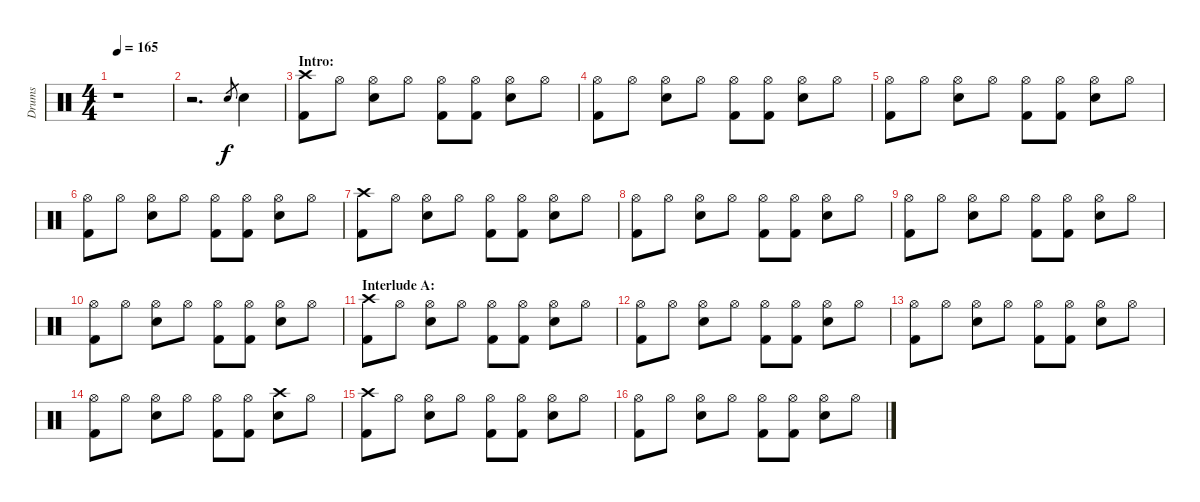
\track ("Drums" "Drums") {instrument percussion}
\staff {score}
\articulation defaults
\ts (4 4)
\tempo 165
\clef neutral
\ks c
r.1{dy f} |
r.2{d} "Electric Snare (hit)".8{gr} "Electric Snare (hit)".4 |
\section ("" "Intro:")
("Crash high (hit)" "Kick (hit) 2").8 "Hi-Hat (open)".8 ("Hi-Hat (open)" "Electric Snare (hit)").8 "Hi-Hat (open)".8 ("Hi-Hat (open)" "Kick (hit) 2").8 ("Hi-Hat (open)" "Kick (hit) 2").8 ("Hi-Hat (open)" "Electric Snare (hit)").8 "Hi-Hat (open)".8 |
("Hi-Hat (open)" "Kick (hit) 2").8 "Hi-Hat (open)".8 ("Hi-Hat (open)" "Electric Snare (hit)").8 "Hi-Hat (open)".8 ("Hi-Hat (open)" "Kick (hit) 2").8 ("Hi-Hat (open)" "Kick (hit) 2").8 ("Hi-Hat (open)" "Electric Snare (hit)").8 "Hi-Hat (open)".8 |
("Hi-Hat (open)" "Kick (hit) 2").8 "Hi-Hat (open)".8 ("Hi-Hat (open)" "Electric Snare (hit)").8 "Hi-Hat (open)".8 ("Hi-Hat (open)" "Kick (hit) 2").8 ("Hi-Hat (open)" "Kick (hit) 2").8 ("Hi-Hat (open)" "Electric Snare (hit)").8 "Hi-Hat (open)".8 |
("Hi-Hat (open)" "Kick (hit) 2").8 "Hi-Hat (open)".8 ("Hi-Hat (open)" "Electric Snare (hit)").8 "Hi-Hat (open)".8 ("Hi-Hat (open)" "Kick (hit) 2").8 ("Hi-Hat (open)" "Kick (hit) 2").8 ("Hi-Hat (open)" "Electric Snare (hit)").8 "Hi-Hat (open)".8 |
("Crash high (hit)" "Kick (hit) 2").8 "Hi-Hat (open)".8 ("Hi-Hat (open)" "Electric Snare (hit)").8 "Hi-Hat (open)".8 ("Hi-Hat (open)" "Kick (hit) 2").8 ("Hi-Hat (open)" "Kick (hit) 2").8 ("Hi-Hat (open)" "Electric Snare (hit)").8 "Hi-Hat (open)".8 |
("Hi-Hat (open)" "Kick (hit) 2").8 "Hi-Hat (open)".8 ("Hi-Hat (open)" "Electric Snare (hit)").8 "Hi-Hat (open)".8 ("Hi-Hat (open)" "Kick (hit) 2").8 ("Hi-Hat (open)" "Kick (hit) 2").8 ("Hi-Hat (open)" "Electric Snare (hit)").8 "Hi-Hat (open)".8 |
("Hi-Hat (open)" "Kick (hit) 2").8 "Hi-Hat (open)".8 ("Hi-Hat (open)" "Electric Snare (hit)").8 "Hi-Hat (open)".8 ("Hi-Hat (open)" "Kick (hit) 2").8 ("Hi-Hat (open)" "Kick (hit) 2").8 ("Hi-Hat (open)" "Electric Snare (hit)").8 "Hi-Hat (open)".8 |
("Hi-Hat (open)" "Kick (hit) 2").8 "Hi-Hat (open)".8 ("Hi-Hat (open)" "Electric Snare (hit)").8 "Hi-Hat (open)".8 ("Hi-Hat (open)" "Kick (hit) 2").8 ("Hi-Hat (open)" "Kick (hit) 2").8 ("Hi-Hat (open)" "Electric Snare (hit)").8 "Hi-Hat (open)".8 |
\section ("" "Interlude A:")
("Crash high (hit)" "Kick (hit) 2").8 "Hi-Hat (open)".8 ("Hi-Hat (open)" "Electric Snare (hit)").8 "Hi-Hat (open)".8 ("Hi-Hat (open)" "Kick (hit) 2").8 ("Hi-Hat (open)" "Kick (hit) 2").8 ("Hi-Hat (open)" "Electric Snare (hit)").8 "Hi-Hat (open)".8 |
("Hi-Hat (open)" "Kick (hit) 2").8 "Hi-Hat (open)".8 ("Hi-Hat (open)" "Electric Snare (hit)").8 "Hi-Hat (open)".8 ("Hi-Hat (open)" "Kick (hit) 2").8 ("Hi-Hat (open)" "Kick (hit) 2").8 ("Hi-Hat (open)" "Electric Snare (hit)").8 "Hi-Hat (open)".8 |
("Hi-Hat (open)" "Kick (hit) 2").8 "Hi-Hat (open)".8 ("Hi-Hat (open)" "Electric Snare (hit)").8 "Hi-Hat (open)".8 ("Hi-Hat (open)" "Kick (hit) 2").8 ("Hi-Hat (open)" "Kick (hit) 2").8 ("Hi-Hat (open)" "Electric Snare (hit)").8 "Hi-Hat (open)".8 |
("Hi-Hat (open)" "Kick (hit) 2").8 "Hi-Hat (open)".8 ("Hi-Hat (open)" "Electric Snare (hit)").8 "Hi-Hat (open)".8 ("Hi-Hat (open)" "Kick (hit) 2").8 ("Hi-Hat (open)" "Kick (hit) 2").8 ("Crash high (hit)" "Electric Snare (hit)").8 "Hi-Hat (open)".8 |
("Crash high (hit)" "Kick (hit) 2").8 "Hi-Hat (open)".8 ("Hi-Hat (open)" "Electric Snare (hit)").8 "Hi-Hat (open)".8 ("Hi-Hat (open)" "Kick (hit) 2").8 ("Hi-Hat (open)" "Kick (hit) 2").8 ("Hi-Hat (open)" "Electric Snare (hit)").8 "Hi-Hat (open)".8 |
("Hi-Hat (open)" "Kick (hit) 2").8 "Hi-Hat (open)".8 ("Hi-Hat (open)" "Electric Snare (hit)").8 "Hi-Hat (open)".8 ("Hi-Hat (open)" "Kick (hit) 2").8 ("Hi-Hat (open)" "Kick (hit) 2").8 ("Hi-Hat (open)" "Electric Snare (hit)").8 "Hi-Hat (open)".8
